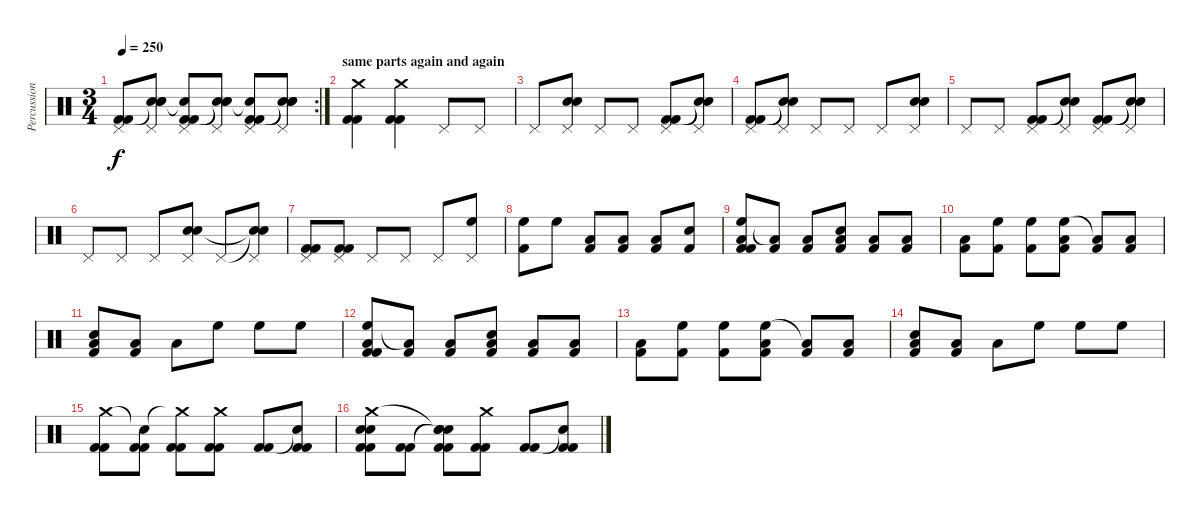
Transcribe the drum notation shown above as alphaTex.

\track ("Percussion" "Percussion") {instrument percussion}
\staff {score}
\articulation defaults
\rc 2
\ts (3 4)
\tempo 250
\clef neutral
\ks c
("Pedal Hi-Hat (hit)" "Kick (hit) 2" "Kick (hit) 2").8{dy f} ("Snare (hit) 2" "Pedal Hi-Hat (hit)" "Snare (hit)"{t} "Snare (hit)"{t}).8 ("Snare (hit)"{t} "Pedal Hi-Hat (hit)" "Kick (hit) 2" "Kick (hit) 2").8 ("Snare (hit) 2" "Pedal Hi-Hat (hit)" "Snare (hit)"{t} "Snare (hit)"{t}).8 ("Snare (hit)"{t} "Pedal Hi-Hat (hit)" "Kick (hit) 2" "Kick (hit) 2").8 ("Snare (hit) 2" "Pedal Hi-Hat (hit)" "Snare (hit)"{t} "Snare (hit)"{t}).8 |
\section ("" "same parts again and again")
("Crash medium (hit)" "Kick (hit) 2" "Kick (hit) 2").4 ("Crash medium (hit)" "Kick (hit) 2" "Kick (hit) 2").4 "Pedal Hi-Hat (hit)".8 "Pedal Hi-Hat (hit)".8 |
"Pedal Hi-Hat (hit)".8 ("Snare (hit) 2" "Snare (hit) 2" "Pedal Hi-Hat (hit)").8 "Pedal Hi-Hat (hit)".8 "Pedal Hi-Hat (hit)".8 ("Pedal Hi-Hat (hit)" "Kick (hit) 2" "Kick (hit) 2").8 ("Pedal Hi-Hat (hit)" "Snare (hit)"{t} "Snare (hit)"{t}).8 |
("Pedal Hi-Hat (hit)" "Kick (hit) 2" "Kick (hit) 2").8 ("Pedal Hi-Hat (hit)" "Snare (hit)"{t} "Snare (hit)"{t}).8 "Pedal Hi-Hat (hit)".8 "Pedal Hi-Hat (hit)".8 "Pedal Hi-Hat (hit)".8 ("Snare (hit) 2" "Snare (hit) 2" "Pedal Hi-Hat (hit)").8 |
"Pedal Hi-Hat (hit)".8 "Pedal Hi-Hat (hit)".8 ("Pedal Hi-Hat (hit)" "Kick (hit) 2" "Kick (hit) 2").8 ("Pedal Hi-Hat (hit)" "Snare (hit)"{t} "Snare (hit)"{t}).8 ("Pedal Hi-Hat (hit)" "Kick (hit) 2" "Kick (hit) 2").8 ("Pedal Hi-Hat (hit)" "Snare (hit)"{t} "Snare (hit)"{t}).8 |
"Pedal Hi-Hat (hit)".8 "Pedal Hi-Hat (hit)".8 "Pedal Hi-Hat (hit)".8 ("Snare (hit) 2" "Snare (hit) 2" "Pedal Hi-Hat (hit)").8 "Pedal Hi-Hat (hit)".8 ("Snare (hit)"{t} "Snare (hit)"{t} "Pedal Hi-Hat (hit)").8 |
("Pedal Hi-Hat (hit)" "Kick (hit) 2" "Kick (hit) 2").8 ("Pedal Hi-Hat (hit)" "Kick (hit) 2" "Kick (hit) 2").8 "Pedal Hi-Hat (hit)".8 "Pedal Hi-Hat (hit)".8 "Pedal Hi-Hat (hit)".8 ("High Floor Tom (hit)" "Pedal Hi-Hat (hit)").8 |
("High Floor Tom (hit)" "Kick (hit) 2").8 "High Floor Tom (hit)".8 ("Low Tom (hit)" "Kick (hit) 2").8 ("Low Tom (hit)" "Kick (hit) 2").8 ("Low Tom (hit)" "Kick (hit) 2").8 ("Snare (hit) 2" "Kick (hit) 2").8 |
("High Floor Tom (hit)" "Low Floor Tom (hit)" "Kick (hit) 2" "Kick (hit) 2").8 ("Low Floor Tom (hit)"{t} "Kick (hit) 2").8 ("Low Floor Tom (hit)" "Kick (hit) 2").8 ("Snare (hit) 2" "Low Tom (hit)" "Kick (hit) 2").8 ("Low Tom (hit)" "Kick (hit) 2").8 ("Low Tom (hit)" "Kick (hit) 2").8 |
("Low Tom (hit)" "Kick (hit) 2").8 ("High Floor Tom (hit)" "Kick (hit) 2").8 ("High Floor Tom (hit)" "Kick (hit) 2").8 ("High Floor Tom (hit)" "Low Floor Tom (hit)" "Kick (hit) 2").8 ("Low Floor Tom (hit)"{t} "Kick (hit) 2").8 ("Low Floor Tom (hit)" "Kick (hit) 2").8 |
("Snare (hit) 2" "Low Tom (hit)" "Kick (hit) 2").8 ("Low Tom (hit)" "Kick (hit) 2").8 "Low Tom (hit)".8 "High Floor Tom (hit)".8 "High Floor Tom (hit)".8 "High Floor Tom (hit)".8 |
("High Floor Tom (hit)" "Low Floor Tom (hit)" "Kick (hit) 2" "Kick (hit) 2").8 ("Low Floor Tom (hit)"{t} "Kick (hit) 2").8 ("Low Floor Tom (hit)" "Kick (hit) 2").8 ("Snare (hit) 2" "Low Tom (hit)" "Kick (hit) 2").8 ("Low Tom (hit)" "Kick (hit) 2").8 ("Low Tom (hit)" "Kick (hit) 2").8 |
("Low Tom (hit)" "Kick (hit) 2").8 ("High Floor Tom (hit)" "Kick (hit) 2").8 ("High Floor Tom (hit)" "Kick (hit) 2").8 ("High Floor Tom (hit)" "Low Floor Tom (hit)" "Kick (hit) 2").8 ("Low Floor Tom (hit)"{t} "Kick (hit) 2").8 ("Low Floor Tom (hit)" "Kick (hit) 2").8 |
("Snare (hit) 2" "Low Tom (hit)" "Kick (hit) 2").8 ("Low Tom (hit)" "Kick (hit) 2").8 "Low Tom (hit)".8 "High Floor Tom (hit)".8 "High Floor Tom (hit)".8 "High Floor Tom (hit)".8 |
("Crash medium (hit)" "Kick (hit) 2" "Kick (hit) 2").8 ("Snare (hit)"{t} "Kick (hit) 2" "Kick (hit) 2").8 ("Crash medium (hit)"{t} "Kick (hit) 2" "Kick (hit) 2").8 ("Crash medium (hit)" "Kick (hit) 2" "Kick (hit) 2").8 ("Kick (hit) 2" "Kick (hit) 2").8 ("Snare (hit)"{t} "Kick (hit) 2" "Kick (hit) 2").8 |
("Snare (hit) 2" "Snare (hit) 2" "Crash medium (hit)" "Kick (hit) 2" "Kick (hit) 2").8 ("Kick (hit) 2" "Kick (hit) 2").8 ("Snare (hit)"{t} "Snare (hit)"{t} "Snare (hit)"{t} "Kick (hit) 2" "Kick (hit) 2").8 ("Crash medium (hit)" "Kick (hit) 2" "Kick (hit) 2").8 ("Kick (hit) 2" "Kick (hit) 2").8 ("Snare (hit)"{t} "Kick (hit) 2" "Kick (hit) 2").8
